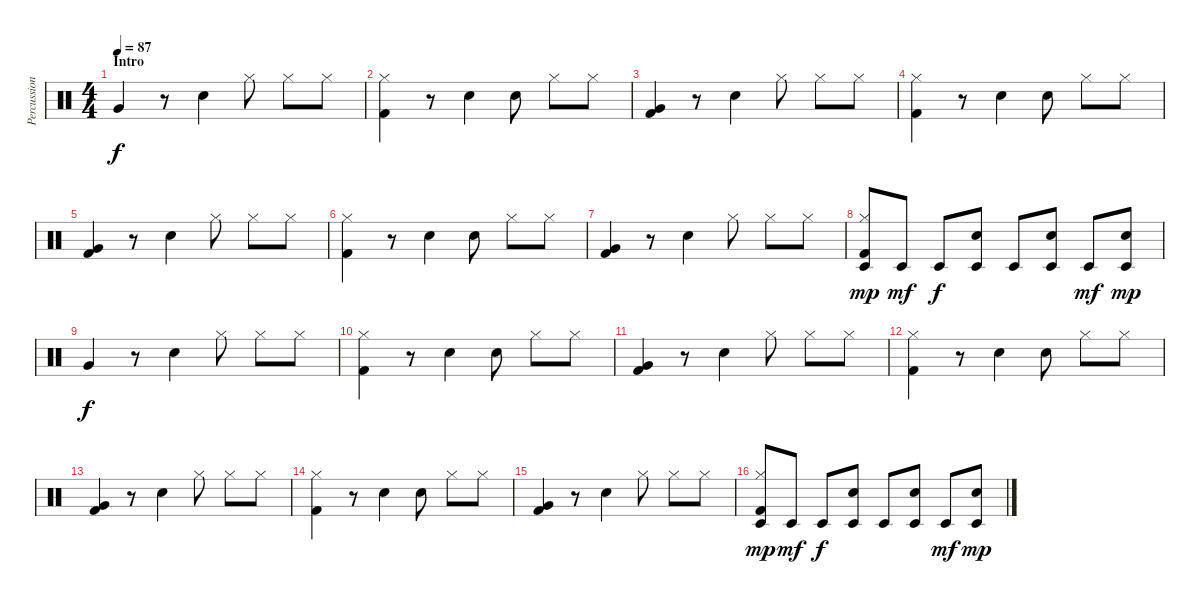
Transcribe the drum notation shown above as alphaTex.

\track ("Percussion" "Percussion") {instrument percussion}
\staff {score}
\articulation defaults
\ts (4 4)
\section ("" "Intro")
\tempo 87
\clef neutral
\ks c "Very Low Tom (hit)".4{dy f}
r.8 "Electric Snare (hit)".4 "Hi-Hat (closed)".8 "Hi-Hat (closed)".8 "Hi-Hat (closed)".8 |
("Hi-Hat (closed)" "Kick (hit) 2").4 r.8 "Electric Snare (hit)".4 "Electric Snare (hit)".8 "Hi-Hat (closed)".8 "Hi-Hat (closed)".8 |
("Very Low Tom (hit)" "Kick (hit) 2").4 r.8 "Electric Snare (hit)".4 "Hi-Hat (closed)".8 "Hi-Hat (closed)".8 "Hi-Hat (closed)".8 |
("Hi-Hat (closed)" "Kick (hit) 2").4 r.8 "Electric Snare (hit)".4 "Electric Snare (hit)".8 "Hi-Hat (closed)".8 "Hi-Hat (closed)".8 |
("Very Low Tom (hit)" "Kick (hit) 2").4 r.8 "Electric Snare (hit)".4 "Hi-Hat (closed)".8 "Hi-Hat (closed)".8 "Hi-Hat (closed)".8 |
("Hi-Hat (closed)" "Kick (hit) 2").4 r.8 "Electric Snare (hit)".4 "Electric Snare (hit)".8 "Hi-Hat (closed)".8 "Hi-Hat (closed)".8 |
("Very Low Tom (hit)" "Kick (hit) 2").4 r.8 "Electric Snare (hit)".4 "Hi-Hat (closed)".8 "Hi-Hat (closed)".8 "Hi-Hat (closed)".8 |
("Hi-Hat (closed)" "Timbale low (hit)" "Kick (hit) 2").8{dy mp} "Timbale low (hit)".8{dy mf} "Timbale low (hit)".8{dy f} ("Electric Snare (hit)" "Timbale low (hit)").8 "Timbale low (hit)".8 ("Electric Snare (hit)" "Timbale low (hit)").8 "Timbale low (hit)".8{dy mf} ("Electric Snare (hit)" "Timbale low (hit)").8{dy mp} |
"Very Low Tom (hit)".4{dy f} r.8 "Electric Snare (hit)".4 "Hi-Hat (closed)".8 "Hi-Hat (closed)".8 "Hi-Hat (closed)".8 |
("Hi-Hat (closed)" "Kick (hit) 2").4 r.8 "Electric Snare (hit)".4 "Electric Snare (hit)".8 "Hi-Hat (closed)".8 "Hi-Hat (closed)".8 |
("Very Low Tom (hit)" "Kick (hit) 2").4 r.8 "Electric Snare (hit)".4 "Hi-Hat (closed)".8 "Hi-Hat (closed)".8 "Hi-Hat (closed)".8 |
("Hi-Hat (closed)" "Kick (hit) 2").4 r.8 "Electric Snare (hit)".4 "Electric Snare (hit)".8 "Hi-Hat (closed)".8 "Hi-Hat (closed)".8 |
("Very Low Tom (hit)" "Kick (hit) 2").4 r.8 "Electric Snare (hit)".4 "Hi-Hat (closed)".8 "Hi-Hat (closed)".8 "Hi-Hat (closed)".8 |
("Hi-Hat (closed)" "Kick (hit) 2").4 r.8 "Electric Snare (hit)".4 "Electric Snare (hit)".8 "Hi-Hat (closed)".8 "Hi-Hat (closed)".8 |
("Very Low Tom (hit)" "Kick (hit) 2").4 r.8 "Electric Snare (hit)".4 "Hi-Hat (closed)".8 "Hi-Hat (closed)".8 "Hi-Hat (closed)".8 |
("Hi-Hat (closed)" "Timbale low (hit)" "Kick (hit) 2").8{dy mp} "Timbale low (hit)".8{dy mf} "Timbale low (hit)".8{dy f} ("Electric Snare (hit)" "Timbale low (hit)").8 "Timbale low (hit)".8 ("Electric Snare (hit)" "Timbale low (hit)").8 "Timbale low (hit)".8{dy mf} ("Electric Snare (hit)" "Timbale low (hit)").8{dy mp}
